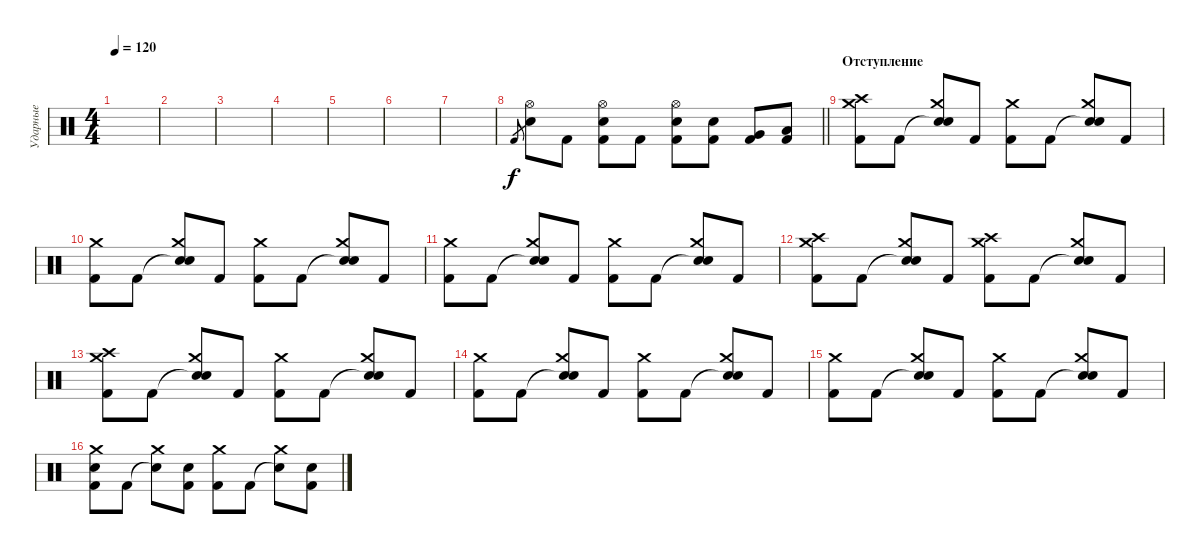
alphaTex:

\track ("Ударные" "Ударные") {instrument percussion}
\staff {score}
\articulation defaults
\ts (4 4)
\tempo 120
\clef neutral
\ks c
|
|
|
|
|
|
|
\barLineRight lightlight "Kick (hit) 2".8{gr}
("Electric Snare (hit)" "Hi-Hat (open)").8 "Kick (hit) 2".8 ("Kick (hit) 2" "Electric Snare (hit)" "Hi-Hat (open)").8 "Kick (hit) 2".8 ("Kick (hit) 2" "Electric Snare (hit)" "Hi-Hat (open)").8 ("Kick (hit) 2" "Electric Snare (hit)").8 ("Kick (hit) 2" "Very Low Tom (hit)").8 ("Kick (hit) 2" "Low Floor Tom (hit)").8 |
\section ("" "Отступление")
("Kick (hit) 2" "Crash medium (hit)" "Crash high (hit)").8 "Kick (hit) 2".8 ("Snare (hit)"{t} "Crash medium (hit)" "Electric Snare (hit)").8 "Kick (hit) 2".8 ("Kick (hit) 2" "Crash medium (hit)").8 "Kick (hit) 2".8 ("Snare (hit)"{t} "Crash medium (hit)" "Electric Snare (hit)").8 "Kick (hit) 2".8 |
("Kick (hit) 2" "Crash medium (hit)").8 "Kick (hit) 2".8 ("Snare (hit)"{t} "Crash medium (hit)" "Electric Snare (hit)").8 "Kick (hit) 2".8 ("Kick (hit) 2" "Crash medium (hit)").8 "Kick (hit) 2".8 ("Snare (hit)"{t} "Crash medium (hit)" "Electric Snare (hit)").8 "Kick (hit) 2".8 |
("Kick (hit) 2" "Crash medium (hit)").8 "Kick (hit) 2".8 ("Snare (hit)"{t} "Crash medium (hit)" "Electric Snare (hit)").8 "Kick (hit) 2".8 ("Kick (hit) 2" "Crash medium (hit)").8 "Kick (hit) 2".8 ("Snare (hit)"{t} "Crash medium (hit)" "Electric Snare (hit)").8 "Kick (hit) 2".8 |
("Kick (hit) 2" "Crash medium (hit)" "Crash high (hit)").8 "Kick (hit) 2".8 ("Snare (hit)"{t} "Crash medium (hit)" "Electric Snare (hit)").8 "Kick (hit) 2".8 ("Kick (hit) 2" "Crash medium (hit)" "Crash high (hit)").8 "Kick (hit) 2".8 ("Snare (hit)"{t} "Crash medium (hit)" "Electric Snare (hit)").8 "Kick (hit) 2".8 |
("Kick (hit) 2" "Crash medium (hit)" "Crash high (hit)").8 "Kick (hit) 2".8 ("Snare (hit)"{t} "Crash medium (hit)" "Electric Snare (hit)").8 "Kick (hit) 2".8 ("Kick (hit) 2" "Crash medium (hit)").8 "Kick (hit) 2".8 ("Snare (hit)"{t} "Crash medium (hit)" "Electric Snare (hit)").8 "Kick (hit) 2".8 |
("Kick (hit) 2" "Crash medium (hit)").8 "Kick (hit) 2".8 ("Snare (hit)"{t} "Crash medium (hit)" "Electric Snare (hit)").8 "Kick (hit) 2".8 ("Kick (hit) 2" "Crash medium (hit)").8 "Kick (hit) 2".8 ("Snare (hit)"{t} "Crash medium (hit)" "Electric Snare (hit)").8 "Kick (hit) 2".8 |
("Kick (hit) 2" "Crash medium (hit)").8 "Kick (hit) 2".8 ("Snare (hit)"{t} "Crash medium (hit)" "Electric Snare (hit)").8 "Kick (hit) 2".8 ("Kick (hit) 2" "Crash medium (hit)").8 "Kick (hit) 2".8 ("Snare (hit)"{t} "Crash medium (hit)" "Electric Snare (hit)").8 "Kick (hit) 2".8 |
("Kick (hit) 2" "Crash medium (hit)" "Electric Snare (hit)").8 "Kick (hit) 2".8 ("Snare (hit)"{t} "Crash medium (hit)").8 ("Kick (hit) 2" "Electric Snare (hit)").8 ("Kick (hit) 2" "Crash medium (hit)").8 "Kick (hit) 2".8 ("Snare (hit)"{t} "Crash medium (hit)").8 ("Kick (hit) 2" "Electric Snare (hit)").8
